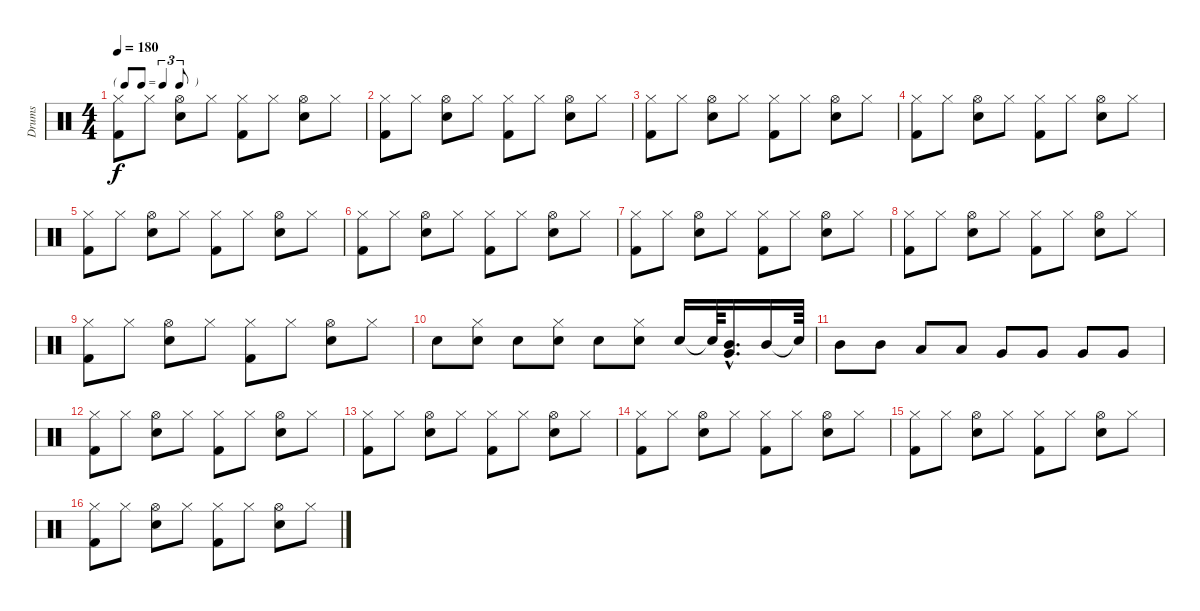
\track ("Drums" "Drums") {instrument percussion}
\staff {score}
\articulation defaults
\ts (4 4)
\tf triplet8th
\tempo 180
\clef neutral
\ks c
("Hi-Hat (closed)" "Kick (hit) 2").8{dy f} "Hi-Hat (closed)".8 ("Hi-Hat (open)" "Snare (hit) 2").8 "Hi-Hat (closed)".8 ("Hi-Hat (closed)" "Kick (hit) 2").8 "Hi-Hat (closed)".8 ("Hi-Hat (open)" "Snare (hit) 2").8 "Hi-Hat (closed)".8 |
("Hi-Hat (closed)" "Kick (hit) 2").8 "Hi-Hat (closed)".8 ("Hi-Hat (open)" "Snare (hit) 2").8 "Hi-Hat (closed)".8 ("Hi-Hat (closed)" "Kick (hit) 2").8 "Hi-Hat (closed)".8 ("Hi-Hat (open)" "Snare (hit) 2").8 "Hi-Hat (closed)".8 |
("Hi-Hat (closed)" "Kick (hit) 2").8 "Hi-Hat (closed)".8 ("Hi-Hat (open)" "Snare (hit) 2").8 "Hi-Hat (closed)".8 ("Hi-Hat (closed)" "Kick (hit) 2").8 "Hi-Hat (closed)".8 ("Hi-Hat (open)" "Snare (hit) 2").8 "Hi-Hat (closed)".8 |
("Hi-Hat (closed)" "Kick (hit) 2").8 "Hi-Hat (closed)".8 ("Hi-Hat (open)" "Snare (hit) 2").8 "Hi-Hat (closed)".8 ("Hi-Hat (closed)" "Kick (hit) 2").8 "Hi-Hat (closed)".8 ("Hi-Hat (open)" "Snare (hit) 2").8 "Hi-Hat (closed)".8 |
("Hi-Hat (closed)" "Kick (hit) 2").8 "Hi-Hat (closed)".8 ("Hi-Hat (open)" "Snare (hit) 2").8 "Hi-Hat (closed)".8 ("Hi-Hat (closed)" "Kick (hit) 2").8 "Hi-Hat (closed)".8 ("Hi-Hat (open)" "Snare (hit) 2").8 "Hi-Hat (closed)".8 |
("Hi-Hat (closed)" "Kick (hit) 2").8 "Hi-Hat (closed)".8 ("Hi-Hat (open)" "Snare (hit) 2").8 "Hi-Hat (closed)".8 ("Hi-Hat (closed)" "Kick (hit) 2").8 "Hi-Hat (closed)".8 ("Hi-Hat (open)" "Snare (hit) 2").8 "Hi-Hat (closed)".8 |
("Hi-Hat (closed)" "Kick (hit) 2").8 "Hi-Hat (closed)".8 ("Hi-Hat (open)" "Snare (hit) 2").8 "Hi-Hat (closed)".8 ("Hi-Hat (closed)" "Kick (hit) 2").8 "Hi-Hat (closed)".8 ("Hi-Hat (open)" "Snare (hit) 2").8 "Hi-Hat (closed)".8 |
("Hi-Hat (closed)" "Kick (hit) 2").8 "Hi-Hat (closed)".8 ("Hi-Hat (open)" "Snare (hit) 2").8 "Hi-Hat (closed)".8 ("Hi-Hat (closed)" "Kick (hit) 2").8 "Hi-Hat (closed)".8 ("Hi-Hat (open)" "Snare (hit) 2").8 "Hi-Hat (closed)".8 |
("Hi-Hat (closed)" "Kick (hit) 2").8 "Hi-Hat (closed)".8 ("Hi-Hat (open)" "Snare (hit) 2").8 "Hi-Hat (closed)".8 ("Hi-Hat (closed)" "Kick (hit) 2").8 "Hi-Hat (closed)".8 ("Hi-Hat (open)" "Snare (hit) 2").8 "Hi-Hat (closed)".8 |
"Snare (hit) 2".8 ("Hi-Hat (closed)" "Snare (hit) 2").8 "Snare (hit) 2".8 ("Hi-Hat (closed)" "Snare (hit) 2").8 "Snare (hit) 2".8 ("Hi-Hat (closed)" "Snare (hit) 2").8 "Snare (hit) 2".16 "Snare (hit)"{t}.64 ("Mid Tom (hit)"{hac} "Very Low Tom (hit)"{hac}).16{d} "Mid Tom (hit)".16 "Snare (hit)"{t}.64 |
"Mid Tom (hit)".8 "Mid Tom (hit)".8 "Low Tom (hit)".8 "Low Tom (hit)".8 "Very Low Tom (hit)".8 "Very Low Tom (hit)".8 "Very Low Tom (hit)".8 "Very Low Tom (hit)".8 |
("Hi-Hat (closed)" "Kick (hit) 2").8 "Hi-Hat (closed)".8 ("Hi-Hat (open)" "Snare (hit) 2").8 "Hi-Hat (closed)".8 ("Hi-Hat (closed)" "Kick (hit) 2").8 "Hi-Hat (closed)".8 ("Hi-Hat (open)" "Snare (hit) 2").8 "Hi-Hat (closed)".8 |
("Hi-Hat (closed)" "Kick (hit) 2").8 "Hi-Hat (closed)".8 ("Hi-Hat (open)" "Snare (hit) 2").8 "Hi-Hat (closed)".8 ("Hi-Hat (closed)" "Kick (hit) 2").8 "Hi-Hat (closed)".8 ("Hi-Hat (open)" "Snare (hit) 2").8 "Hi-Hat (closed)".8 |
("Hi-Hat (closed)" "Kick (hit) 2").8 "Hi-Hat (closed)".8 ("Hi-Hat (open)" "Snare (hit) 2").8 "Hi-Hat (closed)".8 ("Hi-Hat (closed)" "Kick (hit) 2").8 "Hi-Hat (closed)".8 ("Hi-Hat (open)" "Snare (hit) 2").8 "Hi-Hat (closed)".8 |
("Hi-Hat (closed)" "Kick (hit) 2").8 "Hi-Hat (closed)".8 ("Hi-Hat (open)" "Snare (hit) 2").8 "Hi-Hat (closed)".8 ("Hi-Hat (closed)" "Kick (hit) 2").8 "Hi-Hat (closed)".8 ("Hi-Hat (open)" "Snare (hit) 2").8 "Hi-Hat (closed)".8 |
("Hi-Hat (closed)" "Kick (hit) 2").8 "Hi-Hat (closed)".8 ("Hi-Hat (open)" "Snare (hit) 2").8 "Hi-Hat (closed)".8 ("Hi-Hat (closed)" "Kick (hit) 2").8 "Hi-Hat (closed)".8 ("Hi-Hat (open)" "Snare (hit) 2").8 "Hi-Hat (closed)".8
